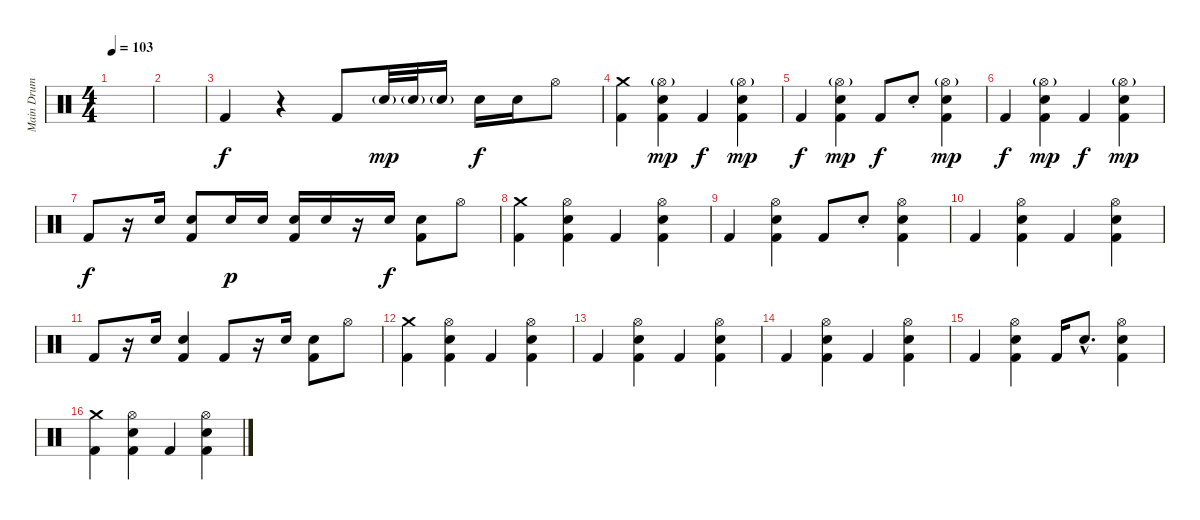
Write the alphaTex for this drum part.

\track ("Main Drum" "Main Drum") {instrument percussion}
\staff {score}
\articulation defaults
\ts (4 4)
\tempo 103
\clef neutral
\ks c
|
|
"Kick (hit) 2".4 r.4 "Kick (hit) 2".8 "Electric Snare (hit)"{g}.32{dy mp} "Electric Snare (hit)"{g}.32 "Electric Snare (hit)"{g}.16 "Electric Snare (hit)".16{dy f} "Electric Snare (hit)".16 "Hi-Hat (open)".8 |
("Crash medium (hit)" "Kick (hit) 2").4 ("Hi-Hat (open)"{g} "Electric Snare (hit)" "Kick (hit) 2").4{dy mp} "Kick (hit) 2".4{dy f} ("Hi-Hat (open)"{g} "Electric Snare (hit)" "Kick (hit) 2").4{dy mp} |
"Kick (hit) 2".4{dy f} ("Hi-Hat (open)"{g} "Electric Snare (hit)" "Kick (hit) 2").4{dy mp} "Kick (hit) 2".8{dy f} "Electric Snare (hit)"{st}.8 ("Hi-Hat (open)"{g} "Electric Snare (hit)" "Kick (hit) 2").4{dy mp} |
"Kick (hit) 2".4{dy f} ("Hi-Hat (open)"{g} "Electric Snare (hit)" "Kick (hit) 2").4{dy mp} "Kick (hit) 2".4{dy f} ("Hi-Hat (open)"{g} "Electric Snare (hit)" "Kick (hit) 2").4{dy mp} |
"Kick (hit) 2".8{dy f} r.16 "Electric Snare (hit)".16 ("Electric Snare (hit)" "Kick (hit) 2").8 "Electric Snare (hit)".16{dy p} "Electric Snare (hit)".16 ("Electric Snare (hit)" "Kick (hit) 2").16 "Electric Snare (hit)".16 r.16 "Electric Snare (hit)".16{dy f} ("Electric Snare (hit)" "Kick (hit) 2").8 "Hi-Hat (open)".8 |
("Crash medium (hit)" "Kick (hit) 2").4 ("Hi-Hat (open)" "Electric Snare (hit)" "Kick (hit) 2").4 "Kick (hit) 2".4 ("Hi-Hat (open)" "Electric Snare (hit)" "Kick (hit) 2").4 |
"Kick (hit) 2".4 ("Hi-Hat (open)" "Electric Snare (hit)" "Kick (hit) 2").4 "Kick (hit) 2".8 "Electric Snare (hit)"{st}.8 ("Hi-Hat (open)" "Electric Snare (hit)" "Kick (hit) 2").4 |
"Kick (hit) 2".4 ("Hi-Hat (open)" "Electric Snare (hit)" "Kick (hit) 2").4 "Kick (hit) 2".4 ("Hi-Hat (open)" "Electric Snare (hit)" "Kick (hit) 2").4 |
"Kick (hit) 2".8 r.16 "Electric Snare (hit)".16 ("Electric Snare (hit)" "Kick (hit) 2").4 "Kick (hit) 2".8 r.16 "Electric Snare (hit)".16 ("Electric Snare (hit)" "Kick (hit) 2").8 "Hi-Hat (open)".8 |
("Crash medium (hit)" "Kick (hit) 2").4 ("Hi-Hat (open)" "Electric Snare (hit)" "Kick (hit) 2").4 "Kick (hit) 2".4 ("Hi-Hat (open)" "Electric Snare (hit)" "Kick (hit) 2").4 |
"Kick (hit) 2".4 ("Hi-Hat (open)" "Electric Snare (hit)" "Kick (hit) 2").4 "Kick (hit) 2".4 ("Hi-Hat (open)" "Electric Snare (hit)" "Kick (hit) 2").4 |
"Kick (hit) 2".4 ("Hi-Hat (open)" "Electric Snare (hit)" "Kick (hit) 2").4 "Kick (hit) 2".4 ("Hi-Hat (open)" "Electric Snare (hit)" "Kick (hit) 2").4 |
"Kick (hit) 2".4 ("Hi-Hat (open)" "Electric Snare (hit)" "Kick (hit) 2").4 "Kick (hit) 2".16 "Electric Snare (hit)"{hac}.8{d} ("Hi-Hat (open)" "Electric Snare (hit)" "Kick (hit) 2").4 |
("Crash medium (hit)" "Kick (hit) 2").4 ("Hi-Hat (open)" "Electric Snare (hit)" "Kick (hit) 2").4 "Kick (hit) 2".4 ("Hi-Hat (open)" "Electric Snare (hit)" "Kick (hit) 2").4
